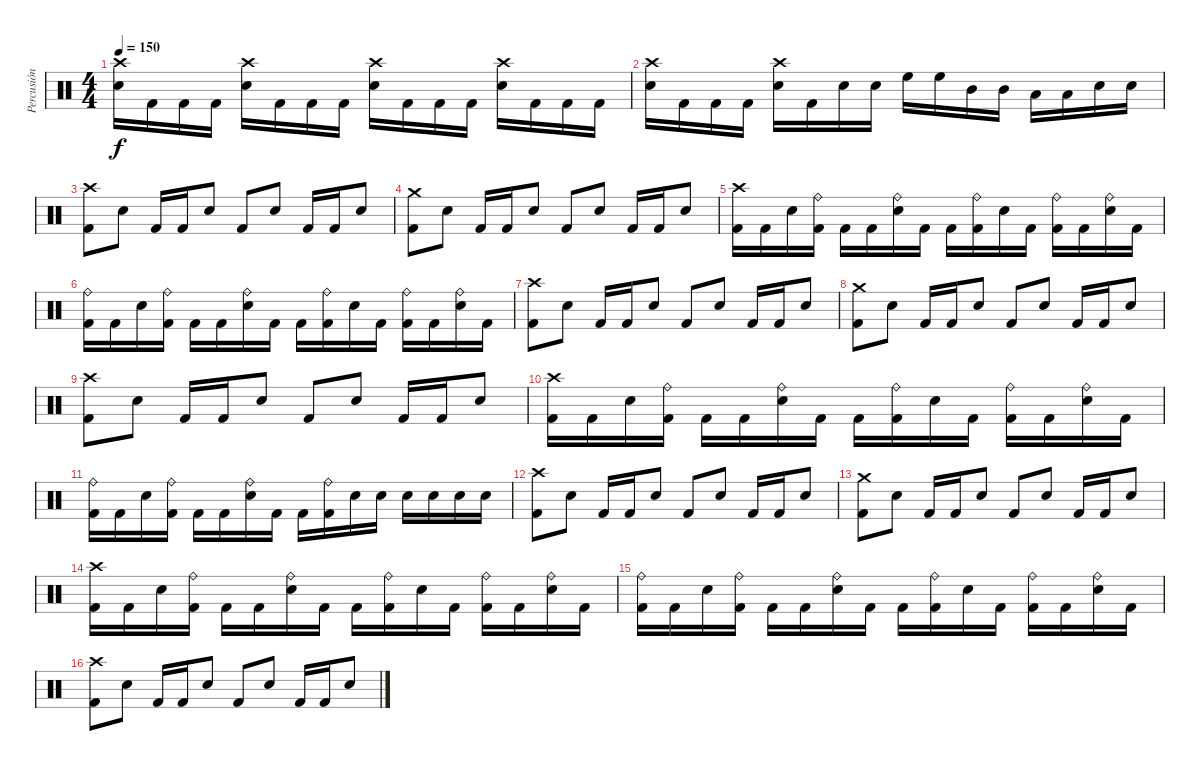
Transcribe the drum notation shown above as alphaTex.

\track ("Percusión" "Percusión") {instrument percussion}
\staff {score}
\articulation defaults
\ts (4 4)
\tempo 150
\clef neutral
\ks c
("Crash high (hit)" "Electric Snare (hit)").16{dy f} "Kick (hit) 2".16 "Kick (hit) 2".16 "Kick (hit) 2".16 ("Crash high (hit)" "Electric Snare (hit)").16 "Kick (hit) 2".16 "Kick (hit) 2".16 "Kick (hit) 2".16 ("Crash high (hit)" "Electric Snare (hit)").16 "Kick (hit) 2".16 "Kick (hit) 2".16 "Kick (hit) 2".16 ("Crash high (hit)" "Electric Snare (hit)").16 "Kick (hit) 2".16 "Kick (hit) 2".16 "Kick (hit) 2".16 |
("Crash high (hit)" "Electric Snare (hit)").16 "Kick (hit) 2".16 "Kick (hit) 2".16 "Kick (hit) 2".16 ("Crash high (hit)" "Electric Snare (hit)").16 "Kick (hit) 2".16 "Electric Snare (hit)".16 "Electric Snare (hit)".16 "High Floor Tom (hit)".16 "High Floor Tom (hit)".16 "Mid Tom (hit)".16 "Mid Tom (hit)".16 "Low Tom (hit)".16 "Low Tom (hit)".16 "Electric Snare (hit)".16 "Electric Snare (hit)".16 |
("Crash high (hit)" "Kick (hit) 2").8 "Electric Snare (hit)".8 "Kick (hit) 2".16 "Kick (hit) 2".16 "Electric Snare (hit)".8 "Kick (hit) 2".8 "Electric Snare (hit)".8 "Kick (hit) 2".16 "Kick (hit) 2".16 "Electric Snare (hit)".8 |
("Crash medium (hit)" "Kick (hit) 2").8 "Electric Snare (hit)".8 "Kick (hit) 2".16 "Kick (hit) 2".16 "Electric Snare (hit)".8 "Kick (hit) 2".8 "Electric Snare (hit)".8 "Kick (hit) 2".16 "Kick (hit) 2".16 "Electric Snare (hit)".8 |
("Crash high (hit)" "Kick (hit) 2").16 "Kick (hit) 2".16 "Electric Snare (hit)".16 ("Ride (bell)" "Kick (hit) 2").16 "Kick (hit) 2".16 "Kick (hit) 2".16 ("Ride (bell)" "Electric Snare (hit)").16 "Kick (hit) 2".16 "Kick (hit) 2".16 ("Ride (bell)" "Kick (hit) 2").16 "Electric Snare (hit)".16 "Kick (hit) 2".16 ("Ride (bell)" "Kick (hit) 2").16 "Kick (hit) 2".16 ("Ride (bell)" "Electric Snare (hit)").16 "Kick (hit) 2".16 |
("Ride (bell)" "Kick (hit) 2").16 "Kick (hit) 2".16 "Electric Snare (hit)".16 ("Ride (bell)" "Kick (hit) 2").16 "Kick (hit) 2".16 "Kick (hit) 2".16 ("Ride (bell)" "Electric Snare (hit)").16 "Kick (hit) 2".16 "Kick (hit) 2".16 ("Ride (bell)" "Kick (hit) 2").16 "Electric Snare (hit)".16 "Kick (hit) 2".16 ("Ride (bell)" "Kick (hit) 2").16 "Kick (hit) 2".16 ("Ride (bell)" "Electric Snare (hit)").16 "Kick (hit) 2".16 |
("Crash high (hit)" "Kick (hit) 2").8 "Electric Snare (hit)".8 "Kick (hit) 2".16 "Kick (hit) 2".16 "Electric Snare (hit)".8 "Kick (hit) 2".8 "Electric Snare (hit)".8 "Kick (hit) 2".16 "Kick (hit) 2".16 "Electric Snare (hit)".8 |
("Crash medium (hit)" "Kick (hit) 2").8 "Electric Snare (hit)".8 "Kick (hit) 2".16 "Kick (hit) 2".16 "Electric Snare (hit)".8 "Kick (hit) 2".8 "Electric Snare (hit)".8 "Kick (hit) 2".16 "Kick (hit) 2".16 "Electric Snare (hit)".8 |
("Crash high (hit)" "Kick (hit) 2").8 "Electric Snare (hit)".8 "Kick (hit) 2".16 "Kick (hit) 2".16 "Electric Snare (hit)".8 "Kick (hit) 2".8 "Electric Snare (hit)".8 "Kick (hit) 2".16 "Kick (hit) 2".16 "Electric Snare (hit)".8 |
("Crash high (hit)" "Kick (hit) 2").16 "Kick (hit) 2".16 "Electric Snare (hit)".16 ("Ride (bell)" "Kick (hit) 2").16 "Kick (hit) 2".16 "Kick (hit) 2".16 ("Ride (bell)" "Electric Snare (hit)").16 "Kick (hit) 2".16 "Kick (hit) 2".16 ("Ride (bell)" "Kick (hit) 2").16 "Electric Snare (hit)".16 "Kick (hit) 2".16 ("Ride (bell)" "Kick (hit) 2").16 "Kick (hit) 2".16 ("Ride (bell)" "Electric Snare (hit)").16 "Kick (hit) 2".16 |
("Ride (bell)" "Kick (hit) 2").16 "Kick (hit) 2".16 "Electric Snare (hit)".16 ("Ride (bell)" "Kick (hit) 2").16 "Kick (hit) 2".16 "Kick (hit) 2".16 ("Ride (bell)" "Electric Snare (hit)").16 "Kick (hit) 2".16 "Kick (hit) 2".16 ("Ride (bell)" "Kick (hit) 2").16 "Electric Snare (hit)".16 "Electric Snare (hit)".16 "Electric Snare (hit)".16 "Electric Snare (hit)".16 "Electric Snare (hit)".16 "Electric Snare (hit)".16 |
("Crash high (hit)" "Kick (hit) 2").8 "Electric Snare (hit)".8 "Kick (hit) 2".16 "Kick (hit) 2".16 "Electric Snare (hit)".8 "Kick (hit) 2".8 "Electric Snare (hit)".8 "Kick (hit) 2".16 "Kick (hit) 2".16 "Electric Snare (hit)".8 |
("Crash medium (hit)" "Kick (hit) 2").8 "Electric Snare (hit)".8 "Kick (hit) 2".16 "Kick (hit) 2".16 "Electric Snare (hit)".8 "Kick (hit) 2".8 "Electric Snare (hit)".8 "Kick (hit) 2".16 "Kick (hit) 2".16 "Electric Snare (hit)".8 |
("Crash high (hit)" "Kick (hit) 2").16 "Kick (hit) 2".16 "Electric Snare (hit)".16 ("Ride (bell)" "Kick (hit) 2").16 "Kick (hit) 2".16 "Kick (hit) 2".16 ("Ride (bell)" "Electric Snare (hit)").16 "Kick (hit) 2".16 "Kick (hit) 2".16 ("Ride (bell)" "Kick (hit) 2").16 "Electric Snare (hit)".16 "Kick (hit) 2".16 ("Ride (bell)" "Kick (hit) 2").16 "Kick (hit) 2".16 ("Ride (bell)" "Electric Snare (hit)").16 "Kick (hit) 2".16 |
("Ride (bell)" "Kick (hit) 2").16 "Kick (hit) 2".16 "Electric Snare (hit)".16 ("Ride (bell)" "Kick (hit) 2").16 "Kick (hit) 2".16 "Kick (hit) 2".16 ("Ride (bell)" "Electric Snare (hit)").16 "Kick (hit) 2".16 "Kick (hit) 2".16 ("Ride (bell)" "Kick (hit) 2").16 "Electric Snare (hit)".16 "Kick (hit) 2".16 ("Ride (bell)" "Kick (hit) 2").16 "Kick (hit) 2".16 ("Ride (bell)" "Electric Snare (hit)").16 "Kick (hit) 2".16 |
("Crash high (hit)" "Kick (hit) 2").8 "Electric Snare (hit)".8 "Kick (hit) 2".16 "Kick (hit) 2".16 "Electric Snare (hit)".8 "Kick (hit) 2".8 "Electric Snare (hit)".8 "Kick (hit) 2".16 "Kick (hit) 2".16 "Electric Snare (hit)".8
